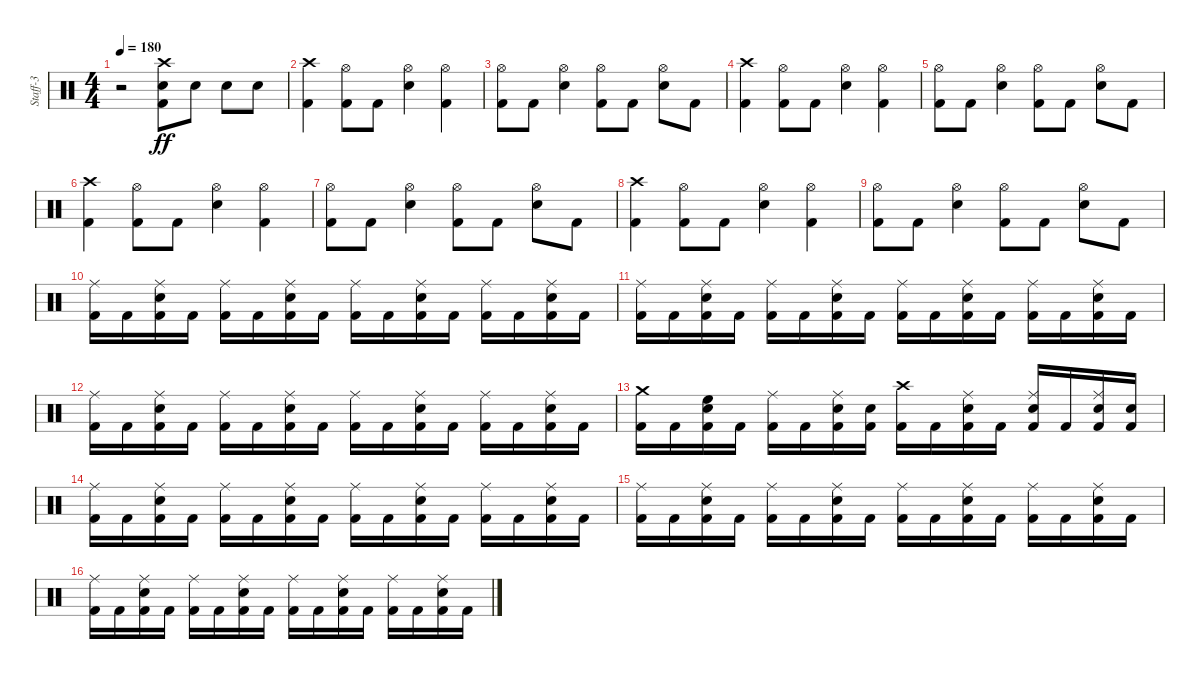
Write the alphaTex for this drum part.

\track ("Staff-3" "Staff-3") {instrument percussion}
\staff {score}
\articulation defaults
\ts (4 4)
\tempo 180
\clef neutral
\ks c
r.2{dy ff} ("Kick (hit) 2" "Snare (hit) 2" "Crash high (hit)").8 "Snare (hit) 2".8 "Snare (hit) 2".8 "Snare (hit) 2".8 |
("Kick (hit) 2" "Crash high (hit)").4 ("Kick (hit) 2" "Hi-Hat (open)").8 "Kick (hit) 2".8 ("Snare (hit) 2" "Hi-Hat (open)").4 ("Kick (hit) 2" "Hi-Hat (open)").4 |
("Kick (hit) 2" "Hi-Hat (open)").8 "Kick (hit) 2".8 ("Snare (hit) 2" "Hi-Hat (open)").4 ("Kick (hit) 2" "Hi-Hat (open)").8 "Kick (hit) 2".8 ("Snare (hit) 2" "Hi-Hat (open)").8 "Kick (hit) 2".8 |
("Kick (hit) 2" "Crash high (hit)").4 ("Kick (hit) 2" "Hi-Hat (open)").8 "Kick (hit) 2".8 ("Snare (hit) 2" "Hi-Hat (open)").4 ("Kick (hit) 2" "Hi-Hat (open)").4 |
("Kick (hit) 2" "Hi-Hat (open)").8 "Kick (hit) 2".8 ("Snare (hit) 2" "Hi-Hat (open)").4 ("Kick (hit) 2" "Hi-Hat (open)").8 "Kick (hit) 2".8 ("Snare (hit) 2" "Hi-Hat (open)").8 "Kick (hit) 2".8 |
("Kick (hit) 2" "Crash high (hit)").4 ("Kick (hit) 2" "Hi-Hat (open)").8 "Kick (hit) 2".8 ("Snare (hit) 2" "Hi-Hat (open)").4 ("Kick (hit) 2" "Hi-Hat (open)").4 |
("Kick (hit) 2" "Hi-Hat (open)").8 "Kick (hit) 2".8 ("Snare (hit) 2" "Hi-Hat (open)").4 ("Kick (hit) 2" "Hi-Hat (open)").8 "Kick (hit) 2".8 ("Snare (hit) 2" "Hi-Hat (open)").8 "Kick (hit) 2".8 |
("Kick (hit) 2" "Crash high (hit)").4 ("Kick (hit) 2" "Hi-Hat (open)").8 "Kick (hit) 2".8 ("Snare (hit) 2" "Hi-Hat (open)").4 ("Kick (hit) 2" "Hi-Hat (open)").4 |
("Kick (hit) 2" "Hi-Hat (open)").8 "Kick (hit) 2".8 ("Snare (hit) 2" "Hi-Hat (open)").4 ("Kick (hit) 2" "Hi-Hat (open)").8 "Kick (hit) 2".8 ("Snare (hit) 2" "Hi-Hat (open)").8 "Kick (hit) 2".8 |
("Kick (hit) 2" "Ride (middle)").16 "Kick (hit) 2".16 ("Kick (hit) 2" "Electric Snare (hit)" "Ride (middle)").16 "Kick (hit) 2".16 ("Kick (hit) 2" "Ride (middle)").16 "Kick (hit) 2".16 ("Kick (hit) 2" "Electric Snare (hit)" "Ride (middle)").16 "Kick (hit) 2".16 ("Kick (hit) 2" "Ride (middle)").16 "Kick (hit) 2".16 ("Kick (hit) 2" "Electric Snare (hit)" "Ride (middle)").16 "Kick (hit) 2".16 ("Kick (hit) 2" "Ride (middle)").16 "Kick (hit) 2".16 ("Kick (hit) 2" "Electric Snare (hit)" "Ride (middle)").16 "Kick (hit) 2".16 |
("Kick (hit) 2" "Ride (middle)").16 "Kick (hit) 2".16 ("Kick (hit) 2" "Electric Snare (hit)" "Ride (middle)").16 "Kick (hit) 2".16 ("Kick (hit) 2" "Ride (middle)").16 "Kick (hit) 2".16 ("Kick (hit) 2" "Electric Snare (hit)" "Ride (middle)").16 "Kick (hit) 2".16 ("Kick (hit) 2" "Ride (middle)").16 "Kick (hit) 2".16 ("Kick (hit) 2" "Electric Snare (hit)" "Ride (middle)").16 "Kick (hit) 2".16 ("Kick (hit) 2" "Ride (middle)").16 "Kick (hit) 2".16 ("Kick (hit) 2" "Electric Snare (hit)" "Ride (middle)").16 "Kick (hit) 2".16 |
("Kick (hit) 2" "Ride (middle)").16 "Kick (hit) 2".16 ("Kick (hit) 2" "Electric Snare (hit)" "Ride (middle)").16 "Kick (hit) 2".16 ("Kick (hit) 2" "Ride (middle)").16 "Kick (hit) 2".16 ("Kick (hit) 2" "Electric Snare (hit)" "Ride (middle)").16 "Kick (hit) 2".16 ("Kick (hit) 2" "Ride (middle)").16 "Kick (hit) 2".16 ("Kick (hit) 2" "Electric Snare (hit)" "Ride (middle)").16 "Kick (hit) 2".16 ("Kick (hit) 2" "Ride (middle)").16 "Kick (hit) 2".16 ("Kick (hit) 2" "Electric Snare (hit)" "Ride (middle)").16 "Kick (hit) 2".16 |
("Kick (hit) 2" "Crash medium (hit)").16 "Kick (hit) 2".16 ("Kick (hit) 2" "Electric Snare (hit)" "High Floor Tom (hit)").16 "Kick (hit) 2".16 ("Kick (hit) 2" "Ride (middle)").16 "Kick (hit) 2".16 ("Kick (hit) 2" "Electric Snare (hit)" "Ride (middle)").16 ("Kick (hit) 2" "Electric Snare (hit)").16 ("Kick (hit) 2" "Crash high (hit)").16 "Kick (hit) 2".16 ("Kick (hit) 2" "Electric Snare (hit)" "Ride (middle)").16 "Kick (hit) 2".16 ("Kick (hit) 2" "Electric Snare (hit)" "Ride (middle)").16 "Kick (hit) 2".16 ("Kick (hit) 2" "Electric Snare (hit)" "Ride (middle)").16 ("Kick (hit) 2" "Electric Snare (hit)").16 |
("Kick (hit) 2" "Ride (middle)").16 "Kick (hit) 2".16 ("Kick (hit) 2" "Electric Snare (hit)" "Ride (middle)").16 "Kick (hit) 2".16 ("Kick (hit) 2" "Ride (middle)").16 "Kick (hit) 2".16 ("Kick (hit) 2" "Electric Snare (hit)" "Ride (middle)").16 "Kick (hit) 2".16 ("Kick (hit) 2" "Ride (middle)").16 "Kick (hit) 2".16 ("Kick (hit) 2" "Electric Snare (hit)" "Ride (middle)").16 "Kick (hit) 2".16 ("Kick (hit) 2" "Ride (middle)").16 "Kick (hit) 2".16 ("Kick (hit) 2" "Electric Snare (hit)" "Ride (middle)").16 "Kick (hit) 2".16 |
("Kick (hit) 2" "Ride (middle)").16 "Kick (hit) 2".16 ("Kick (hit) 2" "Electric Snare (hit)" "Ride (middle)").16 "Kick (hit) 2".16 ("Kick (hit) 2" "Ride (middle)").16 "Kick (hit) 2".16 ("Kick (hit) 2" "Electric Snare (hit)" "Ride (middle)").16 "Kick (hit) 2".16 ("Kick (hit) 2" "Ride (middle)").16 "Kick (hit) 2".16 ("Kick (hit) 2" "Electric Snare (hit)" "Ride (middle)").16 "Kick (hit) 2".16 ("Kick (hit) 2" "Ride (middle)").16 "Kick (hit) 2".16 ("Kick (hit) 2" "Electric Snare (hit)" "Ride (middle)").16 "Kick (hit) 2".16 |
("Kick (hit) 2" "Ride (middle)").16 "Kick (hit) 2".16 ("Kick (hit) 2" "Electric Snare (hit)" "Ride (middle)").16 "Kick (hit) 2".16 ("Kick (hit) 2" "Ride (middle)").16 "Kick (hit) 2".16 ("Kick (hit) 2" "Electric Snare (hit)" "Ride (middle)").16 "Kick (hit) 2".16 ("Kick (hit) 2" "Ride (middle)").16 "Kick (hit) 2".16 ("Kick (hit) 2" "Electric Snare (hit)" "Ride (middle)").16 "Kick (hit) 2".16 ("Kick (hit) 2" "Ride (middle)").16 "Kick (hit) 2".16 ("Kick (hit) 2" "Electric Snare (hit)" "Ride (middle)").16 "Kick (hit) 2".16
